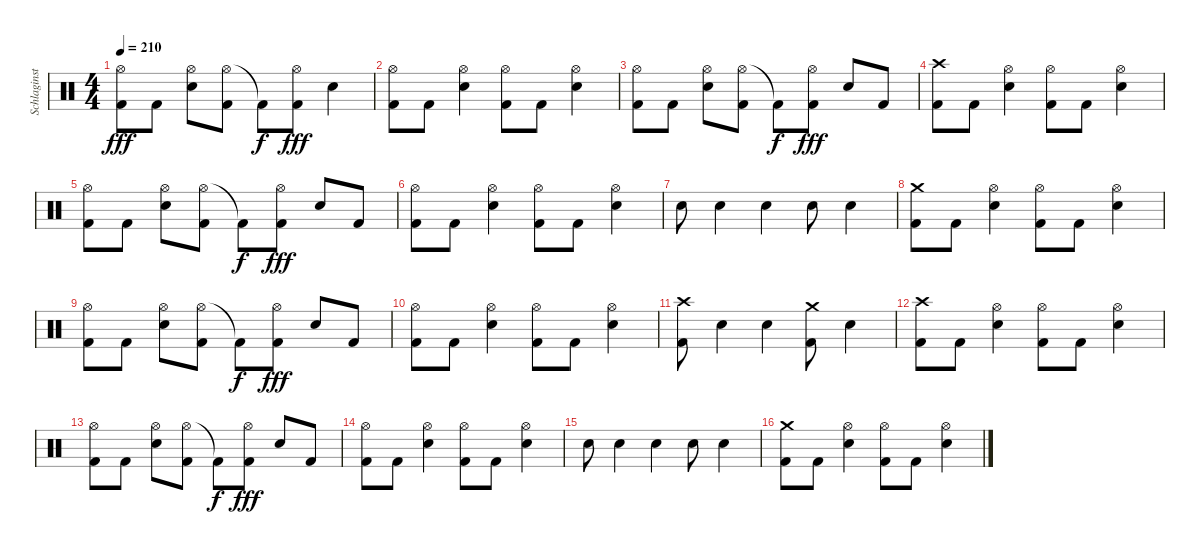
\track ("Schlaginstrumente - Auswahl" "Schlaginst") {instrument percussion}
\staff {score}
\articulation defaults
\ts (4 4)
\tempo 210
\clef neutral
\ks c
("Hi-Hat (open)" "Kick (hit) 2").8{dy fff} "Kick (hit) 2".8 ("Hi-Hat (open)" "Electric Snare (hit)").8 ("Hi-Hat (open)" "Kick (hit) 2").8 "Kick (hit) 2"{t}.8{dy f} ("Hi-Hat (open)" "Kick (hit) 2").8{dy fff} "Electric Snare (hit)".4 |
("Hi-Hat (open)" "Kick (hit) 2").8 "Kick (hit) 2".8 ("Hi-Hat (open)" "Electric Snare (hit)").4 ("Hi-Hat (open)" "Kick (hit) 2").8 "Kick (hit) 2".8 ("Hi-Hat (open)" "Electric Snare (hit)").4 |
("Hi-Hat (open)" "Kick (hit) 2").8 "Kick (hit) 2".8 ("Hi-Hat (open)" "Electric Snare (hit)").8 ("Hi-Hat (open)" "Kick (hit) 2").8 "Kick (hit) 2"{t}.8{dy f} ("Hi-Hat (open)" "Kick (hit) 2").8{dy fff} "Electric Snare (hit)".8 "Kick (hit) 2".8 |
("Crash high (hit)" "Kick (hit) 2").8 "Kick (hit) 2".8 ("Hi-Hat (open)" "Electric Snare (hit)").4 ("Hi-Hat (open)" "Kick (hit) 2").8 "Kick (hit) 2".8 ("Hi-Hat (open)" "Electric Snare (hit)").4 |
("Hi-Hat (open)" "Kick (hit) 2").8 "Kick (hit) 2".8 ("Hi-Hat (open)" "Electric Snare (hit)").8 ("Hi-Hat (open)" "Kick (hit) 2").8 "Kick (hit) 2"{t}.8{dy f} ("Hi-Hat (open)" "Kick (hit) 2").8{dy fff} "Electric Snare (hit)".8 "Kick (hit) 2".8 |
("Hi-Hat (open)" "Kick (hit) 2").8 "Kick (hit) 2".8 ("Hi-Hat (open)" "Electric Snare (hit)").4 ("Hi-Hat (open)" "Kick (hit) 2").8 "Kick (hit) 2".8 ("Hi-Hat (open)" "Electric Snare (hit)").4 |
"Electric Snare (hit)".8 "Electric Snare (hit)".4 "Electric Snare (hit)".4 "Electric Snare (hit)".8 "Electric Snare (hit)".4 |
("Crash medium (hit)" "Kick (hit) 2").8 "Kick (hit) 2".8 ("Hi-Hat (open)" "Electric Snare (hit)").4 ("Hi-Hat (open)" "Kick (hit) 2").8 "Kick (hit) 2".8 ("Hi-Hat (open)" "Electric Snare (hit)").4 |
("Hi-Hat (open)" "Kick (hit) 2").8 "Kick (hit) 2".8 ("Hi-Hat (open)" "Electric Snare (hit)").8 ("Hi-Hat (open)" "Kick (hit) 2").8 "Kick (hit) 2"{t}.8{dy f} ("Hi-Hat (open)" "Kick (hit) 2").8{dy fff} "Electric Snare (hit)".8 "Kick (hit) 2".8 |
("Hi-Hat (open)" "Kick (hit) 2").8 "Kick (hit) 2".8 ("Hi-Hat (open)" "Electric Snare (hit)").4 ("Hi-Hat (open)" "Kick (hit) 2").8 "Kick (hit) 2".8 ("Hi-Hat (open)" "Electric Snare (hit)").4 |
("Crash high (hit)" "Kick (hit) 2").8 "Electric Snare (hit)".4 "Electric Snare (hit)".4 ("Crash medium (hit)" "Kick (hit) 2").8 "Electric Snare (hit)".4 |
("Crash high (hit)" "Kick (hit) 2").8 "Kick (hit) 2".8 ("Hi-Hat (open)" "Electric Snare (hit)").4 ("Hi-Hat (open)" "Kick (hit) 2").8 "Kick (hit) 2".8 ("Hi-Hat (open)" "Electric Snare (hit)").4 |
("Hi-Hat (open)" "Kick (hit) 2").8 "Kick (hit) 2".8 ("Hi-Hat (open)" "Electric Snare (hit)").8 ("Hi-Hat (open)" "Kick (hit) 2").8 "Kick (hit) 2"{t}.8{dy f} ("Hi-Hat (open)" "Kick (hit) 2").8{dy fff} "Electric Snare (hit)".8 "Kick (hit) 2".8 |
("Hi-Hat (open)" "Kick (hit) 2").8 "Kick (hit) 2".8 ("Hi-Hat (open)" "Electric Snare (hit)").4 ("Hi-Hat (open)" "Kick (hit) 2").8 "Kick (hit) 2".8 ("Hi-Hat (open)" "Electric Snare (hit)").4 |
"Electric Snare (hit)".8 "Electric Snare (hit)".4 "Electric Snare (hit)".4 "Electric Snare (hit)".8 "Electric Snare (hit)".4 |
("Crash medium (hit)" "Kick (hit) 2").8 "Kick (hit) 2".8 ("Hi-Hat (open)" "Electric Snare (hit)").4 ("Hi-Hat (open)" "Kick (hit) 2").8 "Kick (hit) 2".8 ("Hi-Hat (open)" "Electric Snare (hit)").4
